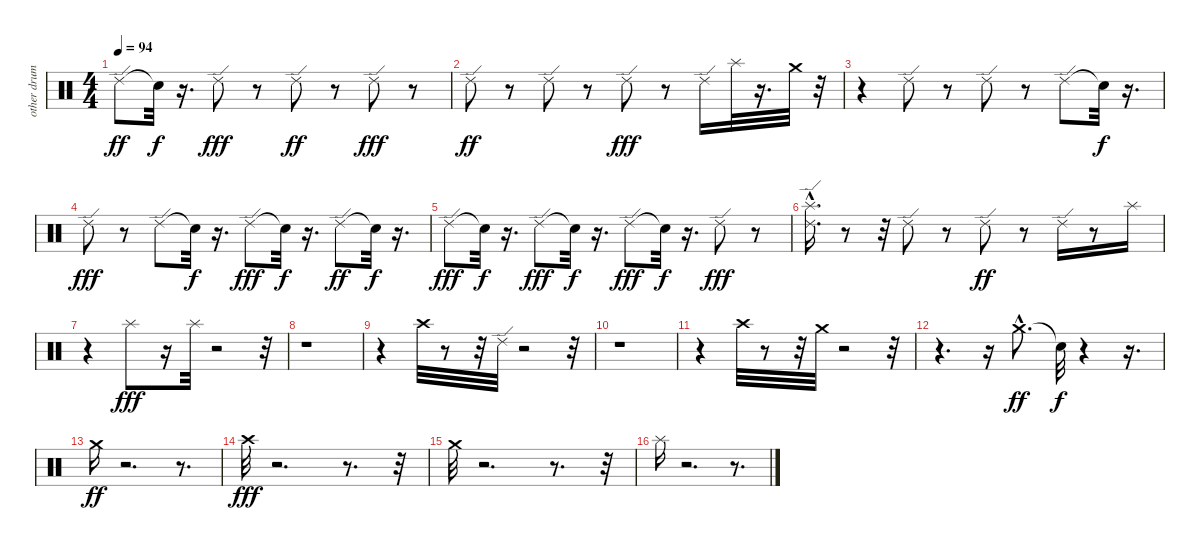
\track ("other drums" "other drum") {instrument percussion}
\staff {score}
\articulation defaults
\ts (4 4)
\tempo 94
\clef neutral
\ks c "Ride (edge) 2".8{dy ff} "Snare (hit)"{t}.32{dy f}
r.16{d} "Ride (edge) 2".8{dy fff} r.8 "Ride (edge) 2".8{dy ff} r.8 "Ride (edge) 2".8{dy fff} r.8 |
"Ride (edge) 2".8{dy ff} r.8 "Ride (edge) 2".8 r.8 "Ride (edge) 2".8{dy fff} r.8 "Ride (edge) 2".16 "Splash (hit)".32 r.16{d} "Crash medium (hit)".32 r.32 |
r.4 "Ride (edge) 2".8 r.8 "Ride (edge) 2".8 r.8 "Ride (edge) 2".8 "Snare (hit)"{t}.32{dy f} r.16{d} |
"Ride (edge) 2".8{dy fff} r.8 "Ride (edge) 2".8 "Snare (hit)"{t}.32{dy f} r.16{d} "Ride (edge) 2".8{dy fff} "Snare (hit)"{t}.32{dy f} r.16{d} "Ride (edge) 2".8{dy ff} "Snare (hit)"{t}.32{dy f} r.16{d} |
"Ride (edge) 2".8{dy fff} "Snare (hit)"{t}.32{dy f} r.16{d} "Ride (edge) 2".8{dy fff} "Snare (hit)"{t}.32{dy f} r.16{d} "Ride (edge) 2".8{dy fff} "Snare (hit)"{t}.32{dy f} r.16{d} "Ride (edge) 2".8{dy fff} r.8 |
("Splash (hit)"{hac} "Ride (edge) 2").16{d} r.8 r.32 "Ride (edge) 2".8 r.8 "Ride (edge) 2".8{dy ff} r.8 "Ride (edge) 2".16 r.8 "Splash (hit)".16 |
r.4 "Splash (hit)".8{dy fff} r.16 "Splash (hit)".32 r.2 r.32 |
r.1 |
r.4 "Crash high (hit)".32 r.8 r.32 "Ride (edge) 2".32 r.2 r.32 |
r.1 |
r.4 "Crash high (hit)".32 r.8 r.32 "Crash medium (hit)".32 r.2 r.32 |
r.4{d} r.16 "Crash medium (hit)"{hac}.8{d dy ff} "Snare (hit)"{t}.32{dy f} r.4 r.16{d} |
"Crash medium (hit)".16{dy ff} r.2{d} r.8{d} |
"Crash high (hit)".32{dy fff} r.2{d} r.8{d} r.32 |
"Crash medium (hit)".32 r.2{d} r.8{d} r.32 |
"Splash (hit)".16 r.2{d} r.8{d}
